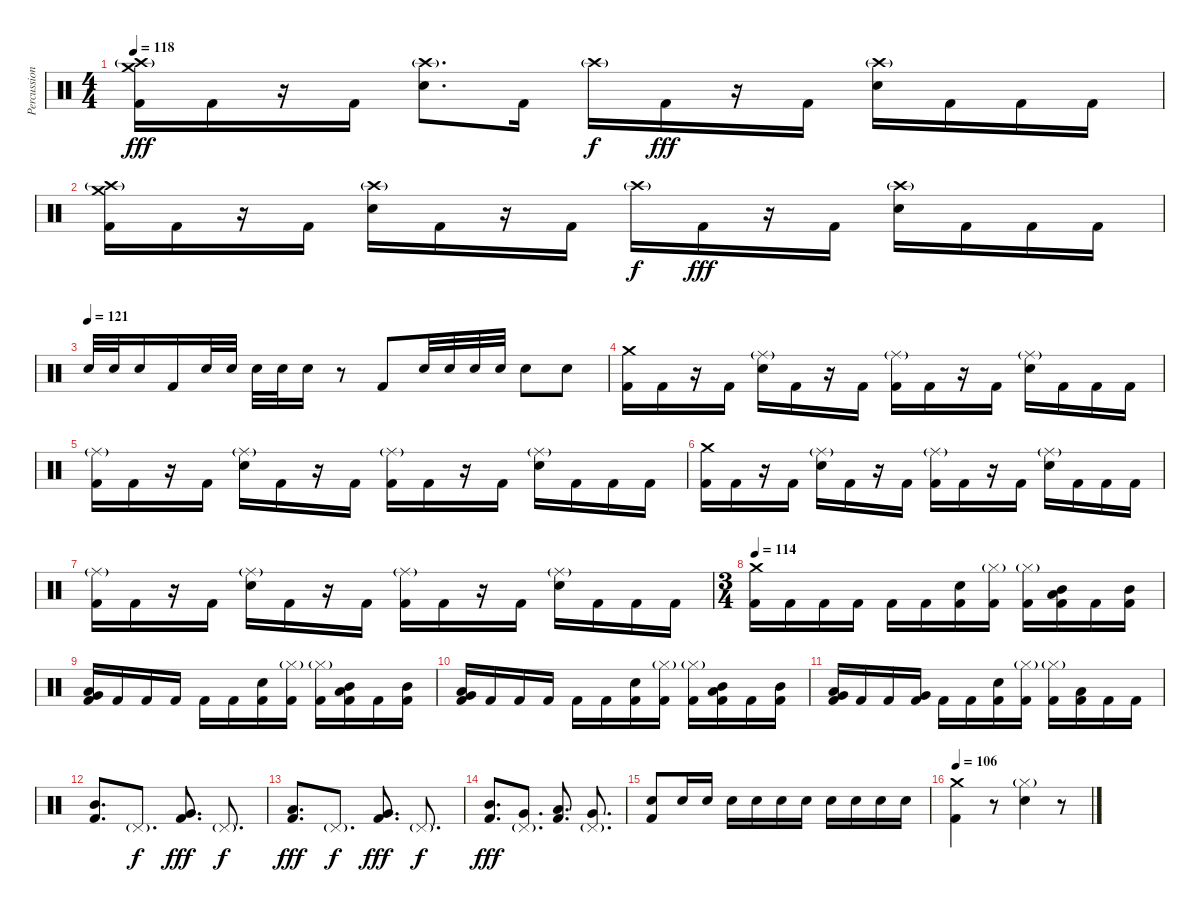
\track ("Percussion" "Percussion") {instrument percussion}
\staff {score}
\articulation defaults
\ts (4 4)
\tempo 118
\clef neutral
\ks c
("Crash high (hit)"{g} "Crash medium (hit)" "Kick (hit) 2").16{dy fff} "Kick (hit) 2".16 r.16 "Kick (hit) 2".16 ("Crash high (hit)"{g} "Electric Snare (hit)").8{d} "Kick (hit) 2".16 "Crash high (hit)"{g}.16{dy f} "Kick (hit) 2".16{dy fff} r.16 "Kick (hit) 2".16 ("Crash high (hit)"{g} "Electric Snare (hit)").16 "Kick (hit) 2".16 "Kick (hit) 2".16 "Kick (hit) 2".16 |
("Crash high (hit)"{g} "Crash medium (hit)" "Kick (hit) 2").16 "Kick (hit) 2".16 r.16 "Kick (hit) 2".16 ("Crash high (hit)"{g} "Electric Snare (hit)").16 "Kick (hit) 2".16 r.16 "Kick (hit) 2".16 "Crash high (hit)"{g}.16{dy f} "Kick (hit) 2".16{dy fff} r.16 "Kick (hit) 2".16 ("Crash high (hit)"{g} "Electric Snare (hit)").16 "Kick (hit) 2".16 "Kick (hit) 2".16 "Kick (hit) 2".16 |
\tempo (121)
"Electric Snare (hit)".32 "Electric Snare (hit)".32 "Electric Snare (hit)".16 "Kick (hit) 2".16 "Electric Snare (hit)".32 "Electric Snare (hit)".32 "Electric Snare (hit)".32 "Electric Snare (hit)".32 "Electric Snare (hit)".16 r.8 "Kick (hit) 2".8 "Electric Snare (hit)".32 "Electric Snare (hit)".32 "Electric Snare (hit)".32 "Electric Snare (hit)".32 "Electric Snare (hit)".8 "Electric Snare (hit)".8 |
("Crash medium (hit)" "Kick (hit) 2").16 "Kick (hit) 2".16 r.16 "Kick (hit) 2".16 ("Ride (middle)"{g} "Electric Snare (hit)").16 "Kick (hit) 2".16 r.16 "Kick (hit) 2".16 ("Ride (middle)"{g} "Kick (hit) 2").16 "Kick (hit) 2".16 r.16 "Kick (hit) 2".16 ("Ride (middle)"{g} "Electric Snare (hit)").16 "Kick (hit) 2".16 "Kick (hit) 2".16 "Kick (hit) 2".16 |
("Ride (middle)"{g} "Kick (hit) 2").16 "Kick (hit) 2".16 r.16 "Kick (hit) 2".16 ("Ride (middle)"{g} "Electric Snare (hit)").16 "Kick (hit) 2".16 r.16 "Kick (hit) 2".16 ("Ride (middle)"{g} "Kick (hit) 2").16 "Kick (hit) 2".16 r.16 "Kick (hit) 2".16 ("Ride (middle)"{g} "Electric Snare (hit)").16 "Kick (hit) 2".16 "Kick (hit) 2".16 "Kick (hit) 2".16 |
("Crash medium (hit)" "Kick (hit) 2").16 "Kick (hit) 2".16 r.16 "Kick (hit) 2".16 ("Ride (middle)"{g} "Electric Snare (hit)").16 "Kick (hit) 2".16 r.16 "Kick (hit) 2".16 ("Ride (middle)"{g} "Kick (hit) 2").16 "Kick (hit) 2".16 r.16 "Kick (hit) 2".16 ("Ride (middle)"{g} "Electric Snare (hit)").16 "Kick (hit) 2".16 "Kick (hit) 2".16 "Kick (hit) 2".16 |
("Ride (middle)"{g} "Kick (hit) 2").16 "Kick (hit) 2".16 r.16 "Kick (hit) 2".16 ("Ride (middle)"{g} "Electric Snare (hit)").16 "Kick (hit) 2".16 r.16 "Kick (hit) 2".16 ("Ride (middle)"{g} "Kick (hit) 2").16 "Kick (hit) 2".16 r.16 "Kick (hit) 2".16 ("Ride (middle)"{g} "Electric Snare (hit)").16 "Kick (hit) 2".16 "Kick (hit) 2".16 "Kick (hit) 2".16 |
\ts (3 4)
\tempo 114
("Crash medium (hit)" "Kick (hit) 2").16 "Kick (hit) 2".16 "Kick (hit) 2".16 "Kick (hit) 2".16 "Kick (hit) 2".16 "Kick (hit) 2".16 ("Electric Snare (hit)" "Kick (hit) 2").16 ("Hi-Hat (closed)"{g} "Kick (hit) 2").16 ("Hi-Hat (closed)"{g} "Kick (hit) 2").16 ("Mid Tom (hit)" "Low Tom (hit)" "Kick (hit) 2").16 "Kick (hit) 2".16 ("Mid Tom (hit)" "Kick (hit) 2").16 |
("Low Tom (hit)" "Very Low Tom (hit)" "Kick (hit) 2").16 "Kick (hit) 2".16 "Kick (hit) 2".16 "Kick (hit) 2".16 "Kick (hit) 2".16 "Kick (hit) 2".16 ("Electric Snare (hit)" "Kick (hit) 2").16 ("Hi-Hat (closed)"{g} "Kick (hit) 2").16 ("Hi-Hat (closed)"{g} "Kick (hit) 2").16 ("Mid Tom (hit)" "Low Tom (hit)" "Kick (hit) 2").16 "Kick (hit) 2".16 ("Mid Tom (hit)" "Kick (hit) 2").16 |
("Low Tom (hit)" "Very Low Tom (hit)" "Kick (hit) 2").16 "Kick (hit) 2".16 "Kick (hit) 2".16 "Kick (hit) 2".16 "Kick (hit) 2".16 "Kick (hit) 2".16 ("Electric Snare (hit)" "Kick (hit) 2").16 ("Hi-Hat (closed)"{g} "Kick (hit) 2").16 ("Hi-Hat (closed)"{g} "Kick (hit) 2").16 ("Mid Tom (hit)" "Low Tom (hit)" "Kick (hit) 2").16 "Kick (hit) 2".16 ("Mid Tom (hit)" "Kick (hit) 2").16 |
("Low Tom (hit)" "Very Low Tom (hit)" "Kick (hit) 2").16 "Kick (hit) 2".16 "Kick (hit) 2".16 ("Very Low Tom (hit)" "Kick (hit) 2").16 "Kick (hit) 2".16 "Kick (hit) 2".16 ("Electric Snare (hit)" "Kick (hit) 2").16 ("Hi-Hat (closed)"{g} "Kick (hit) 2").16 ("Hi-Hat (closed)"{g} "Kick (hit) 2").16 ("Low Tom (hit)" "Kick (hit) 2").16 "Kick (hit) 2".16 "Kick (hit) 2".16 |
("Mid Tom (hit)" "Kick (hit) 2").8{d} "Pedal Hi-Hat (hit)"{g}.8{d dy f} ("Very Low Tom (hit)" "Kick (hit) 2").8{d dy fff} "Pedal Hi-Hat (hit)"{g}.8{d dy f} |
("Low Tom (hit)" "Kick (hit) 2").8{d dy fff} "Pedal Hi-Hat (hit)"{g}.8{d dy f} ("Very Low Tom (hit)" "Kick (hit) 2").8{d dy fff} "Pedal Hi-Hat (hit)"{g}.8{d dy f} |
("Mid Tom (hit)" "Kick (hit) 2").8{d dy fff} ("Very Low Tom (hit)" "Pedal Hi-Hat (hit)"{g}).8{d} ("Low Tom (hit)" "Kick (hit) 2").8{d} ("Very Low Tom (hit)" "Pedal Hi-Hat (hit)"{g}).8{d} |
("Electric Snare (hit)" "Kick (hit) 2").8 "Electric Snare (hit)".16 "Electric Snare (hit)".16 "Electric Snare (hit)".16 "Electric Snare (hit)".16 "Electric Snare (hit)".16 "Electric Snare (hit)".16 "Electric Snare (hit)".16 "Electric Snare (hit)".16 "Electric Snare (hit)".16 "Electric Snare (hit)".16 |
\tempo 106
("Crash medium (hit)" "Kick (hit) 2").4 r.8 ("Hi-Hat (closed)"{g} "Electric Snare (hit)").4 r.8
